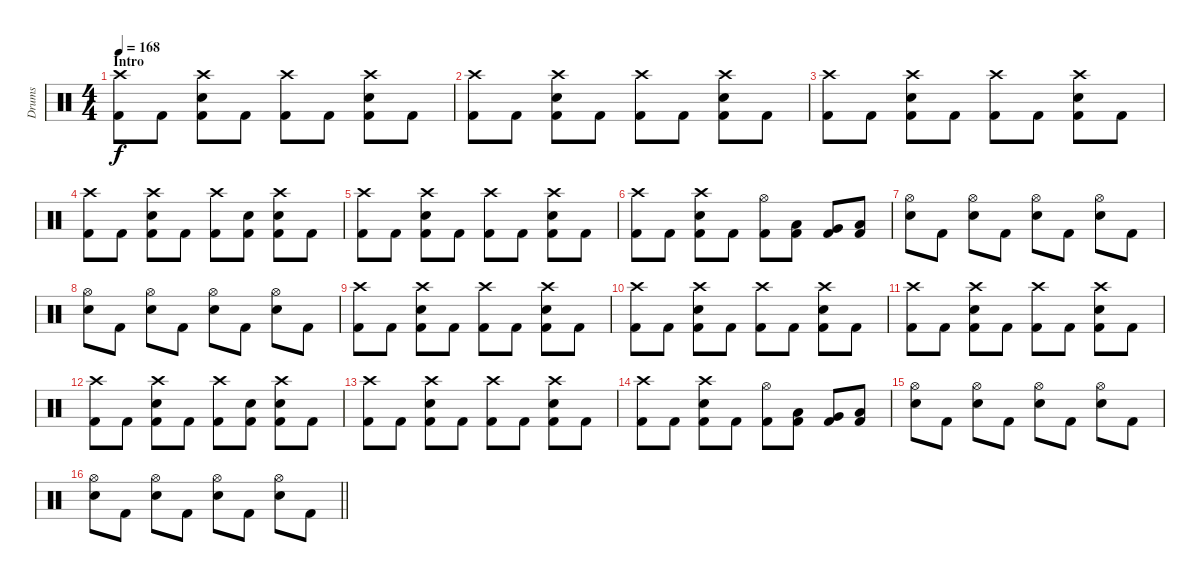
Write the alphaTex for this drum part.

\track ("Drums" "Drums") {instrument percussion}
\staff {score}
\articulation defaults
\ts (4 4)
\section ("" "Intro")
\tempo 168
\clef neutral
\ks c
("Crash high (hit)" "Kick (hit) 2").8{dy f} "Kick (hit) 2".8 ("Crash high (hit)" "Electric Snare (hit)" "Kick (hit) 2").8 "Kick (hit) 2".8 ("Crash high (hit)" "Kick (hit) 2").8 "Kick (hit) 2".8 ("Crash high (hit)" "Electric Snare (hit)" "Kick (hit) 2").8 "Kick (hit) 2".8 |
("Crash high (hit)" "Kick (hit) 2").8 "Kick (hit) 2".8 ("Crash high (hit)" "Electric Snare (hit)" "Kick (hit) 2").8 "Kick (hit) 2".8 ("Crash high (hit)" "Kick (hit) 2").8 "Kick (hit) 2".8 ("Crash high (hit)" "Electric Snare (hit)" "Kick (hit) 2").8 "Kick (hit) 2".8 |
("Crash high (hit)" "Kick (hit) 2").8 "Kick (hit) 2".8 ("Crash high (hit)" "Electric Snare (hit)" "Kick (hit) 2").8 "Kick (hit) 2".8 ("Crash high (hit)" "Kick (hit) 2").8 "Kick (hit) 2".8 ("Crash high (hit)" "Electric Snare (hit)" "Kick (hit) 2").8 "Kick (hit) 2".8 |
("Crash high (hit)" "Kick (hit) 2").8 "Kick (hit) 2".8 ("Crash high (hit)" "Electric Snare (hit)" "Kick (hit) 2").8 "Kick (hit) 2".8 ("Crash high (hit)" "Kick (hit) 2").8 ("Electric Snare (hit)" "Kick (hit) 2").8 ("Crash high (hit)" "Electric Snare (hit)" "Kick (hit) 2").8 "Kick (hit) 2".8 |
("Crash high (hit)" "Kick (hit) 2").8 "Kick (hit) 2".8 ("Crash high (hit)" "Electric Snare (hit)" "Kick (hit) 2").8 "Kick (hit) 2".8 ("Crash high (hit)" "Kick (hit) 2").8 "Kick (hit) 2".8 ("Crash high (hit)" "Electric Snare (hit)" "Kick (hit) 2").8 "Kick (hit) 2".8 |
("Crash high (hit)" "Kick (hit) 2").8 "Kick (hit) 2".8 ("Crash high (hit)" "Electric Snare (hit)" "Kick (hit) 2").8 "Kick (hit) 2".8 ("Hi-Hat (open)" "Kick (hit) 2").8 ("Low Tom (hit)" "Kick (hit) 2").8 ("Very Low Tom (hit)" "Kick (hit) 2").8 ("Low Floor Tom (hit)" "Kick (hit) 2").8 |
("Hi-Hat (open)" "Electric Snare (hit)").8 "Kick (hit) 2".8 ("Hi-Hat (open)" "Electric Snare (hit)").8 "Kick (hit) 2".8 ("Hi-Hat (open)" "Electric Snare (hit)").8 "Kick (hit) 2".8 ("Hi-Hat (open)" "Electric Snare (hit)").8 "Kick (hit) 2".8 |
("Hi-Hat (open)" "Electric Snare (hit)").8 "Kick (hit) 2".8 ("Hi-Hat (open)" "Electric Snare (hit)").8 "Kick (hit) 2".8 ("Hi-Hat (open)" "Electric Snare (hit)").8 "Kick (hit) 2".8 ("Hi-Hat (open)" "Electric Snare (hit)").8 "Kick (hit) 2".8 |
("Crash high (hit)" "Kick (hit) 2").8 "Kick (hit) 2".8 ("Crash high (hit)" "Electric Snare (hit)" "Kick (hit) 2").8 "Kick (hit) 2".8 ("Crash high (hit)" "Kick (hit) 2").8 "Kick (hit) 2".8 ("Crash high (hit)" "Electric Snare (hit)" "Kick (hit) 2").8 "Kick (hit) 2".8 |
("Crash high (hit)" "Kick (hit) 2").8 "Kick (hit) 2".8 ("Crash high (hit)" "Electric Snare (hit)" "Kick (hit) 2").8 "Kick (hit) 2".8 ("Crash high (hit)" "Kick (hit) 2").8 "Kick (hit) 2".8 ("Crash high (hit)" "Electric Snare (hit)" "Kick (hit) 2").8 "Kick (hit) 2".8 |
("Crash high (hit)" "Kick (hit) 2").8 "Kick (hit) 2".8 ("Crash high (hit)" "Electric Snare (hit)" "Kick (hit) 2").8 "Kick (hit) 2".8 ("Crash high (hit)" "Kick (hit) 2").8 "Kick (hit) 2".8 ("Crash high (hit)" "Electric Snare (hit)" "Kick (hit) 2").8 "Kick (hit) 2".8 |
("Crash high (hit)" "Kick (hit) 2").8 "Kick (hit) 2".8 ("Crash high (hit)" "Electric Snare (hit)" "Kick (hit) 2").8 "Kick (hit) 2".8 ("Crash high (hit)" "Kick (hit) 2").8 ("Electric Snare (hit)" "Kick (hit) 2").8 ("Crash high (hit)" "Electric Snare (hit)" "Kick (hit) 2").8 "Kick (hit) 2".8 |
("Crash high (hit)" "Kick (hit) 2").8 "Kick (hit) 2".8 ("Crash high (hit)" "Electric Snare (hit)" "Kick (hit) 2").8 "Kick (hit) 2".8 ("Crash high (hit)" "Kick (hit) 2").8 "Kick (hit) 2".8 ("Crash high (hit)" "Electric Snare (hit)" "Kick (hit) 2").8 "Kick (hit) 2".8 |
("Crash high (hit)" "Kick (hit) 2").8 "Kick (hit) 2".8 ("Crash high (hit)" "Electric Snare (hit)" "Kick (hit) 2").8 "Kick (hit) 2".8 ("Hi-Hat (open)" "Kick (hit) 2").8 ("Low Tom (hit)" "Kick (hit) 2").8 ("Very Low Tom (hit)" "Kick (hit) 2").8 ("Low Floor Tom (hit)" "Kick (hit) 2").8 |
("Hi-Hat (open)" "Electric Snare (hit)").8 "Kick (hit) 2".8 ("Hi-Hat (open)" "Electric Snare (hit)").8 "Kick (hit) 2".8 ("Hi-Hat (open)" "Electric Snare (hit)").8 "Kick (hit) 2".8 ("Hi-Hat (open)" "Electric Snare (hit)").8 "Kick (hit) 2".8 |
\barLineRight lightlight
("Hi-Hat (open)" "Electric Snare (hit)").8 "Kick (hit) 2".8 ("Hi-Hat (open)" "Electric Snare (hit)").8 "Kick (hit) 2".8 ("Hi-Hat (open)" "Electric Snare (hit)").8 "Kick (hit) 2".8 ("Hi-Hat (open)" "Electric Snare (hit)").8 "Kick (hit) 2".8
